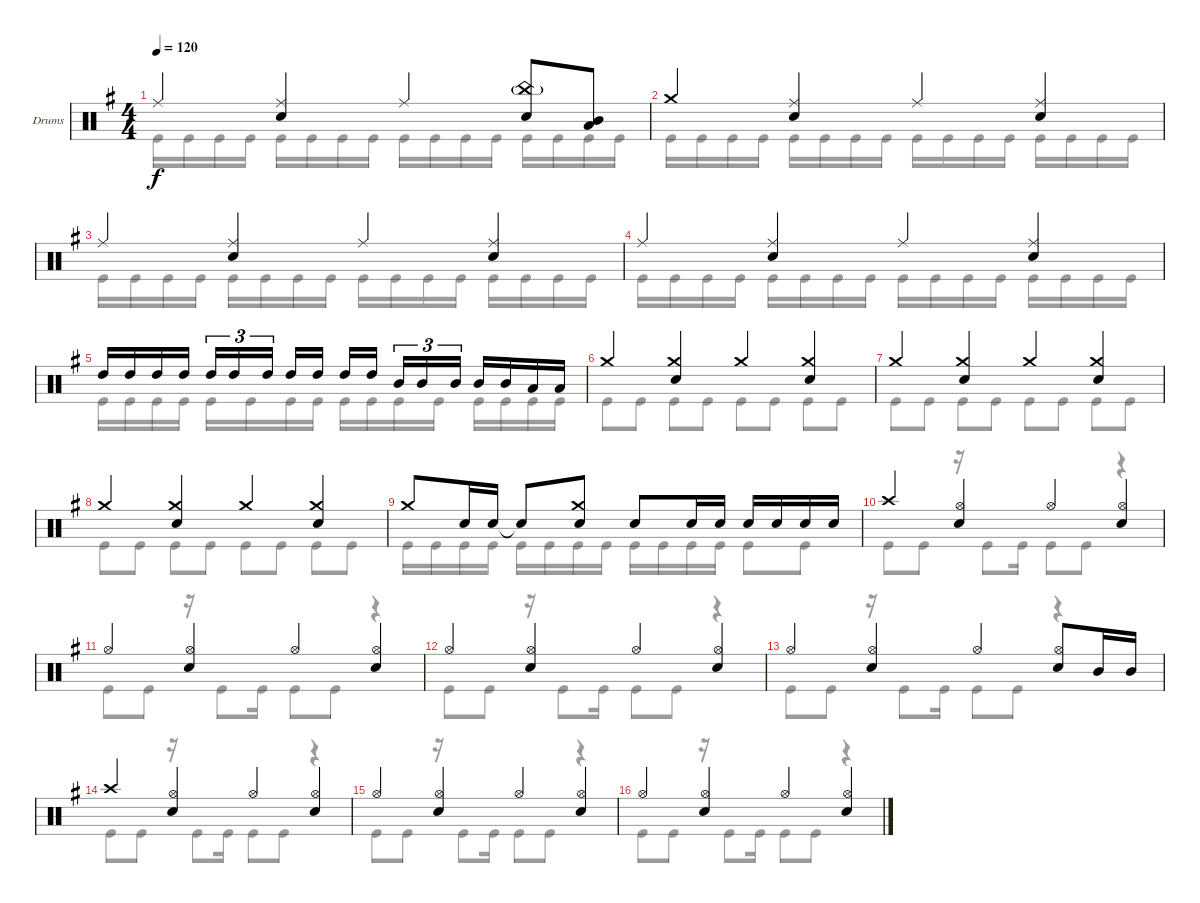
\bracketExtendMode groupsimilarinstruments
\firstSystemTrackNameOrientation horizontal
\otherSystemsTrackNameOrientation horizontal
\track ("Drumkit" "Drums") {mute instrument percussion}
\staff {score}
\articulation defaults
\voice
\ts (4 4)
\tempo 120
\clef neutral
\ks eminor "Ride (middle)".4{dy f}
("Ride (middle)" "Snare (hit) 2").4 "Ride (middle)".4 ("China (hit)"{g} "Snare (hit) 2").8 ("Mid Tom (hit)" "Low Tom (hit)").8 |
"Crash medium (hit)".4 ("Ride (middle)" "Snare (hit) 2").4 "Ride (middle)".4 ("Ride (middle)" "Snare (hit) 2").4 |
"Ride (middle)".4 ("Ride (middle)" "Snare (hit) 2").4 "Ride (middle)".4 ("Ride (middle)" "Snare (hit) 2").4 |
"Ride (middle)".4 ("Ride (middle)" "Snare (hit) 2").4 "Ride (middle)".4 ("Ride (middle)" "Snare (hit) 2").4 |
"High Tom (hit)".16 "High Tom (hit)".16 "High Tom (hit)".16 "High Tom (hit)".16 "High Tom (hit)".16{tu (3 2)} "High Tom (hit)".16{tu (3 2)} "High Tom (hit)".16{tu (3 2)} "High Tom (hit)".16 "High Tom (hit)".16 "High Tom (hit)".16 "High Tom (hit)".16 "Mid Tom (hit)".16{tu (3 2)} "Mid Tom (hit)".16{tu (3 2)} "Mid Tom (hit)".16{tu (3 2)} "Mid Tom (hit)".16 "Mid Tom (hit)".16 "Low Tom (hit)".16 "Low Tom (hit)".16 |
"Crash medium (hit)".4 ("Crash medium (hit)" "Snare (hit) 2").4 "Crash medium (hit)".4 ("Crash medium (hit)" "Snare (hit) 2").4 |
"Crash medium (hit)".4 ("Crash medium (hit)" "Snare (hit) 2").4 "Crash medium (hit)".4 ("Crash medium (hit)" "Snare (hit) 2").4 |
"Crash medium (hit)".4 ("Crash medium (hit)" "Snare (hit) 2").4 "Crash medium (hit)".4 ("Crash medium (hit)" "Snare (hit) 2").4 |
"Crash medium (hit)".8 "Snare (hit) 2".16 "Snare (hit) 2".16 "Snare (hit) 2"{t}.8 ("Crash medium (hit)" "Snare (hit) 2").8 "Snare (hit) 2".8 "Snare (hit) 2".16 "Snare (hit) 2".16 "Snare (hit) 2".16 "Snare (hit) 2".16 "Snare (hit) 2".16 "Snare (hit) 2".16 |
"Crash high (hit)".4 ("Hi-Hat (open)" "Snare (hit) 2").4 "Hi-Hat (open)".4 ("Hi-Hat (open)" "Snare (hit) 2").4 |
"Hi-Hat (open)".4 ("Hi-Hat (open)" "Snare (hit) 2").4 "Hi-Hat (open)".4 ("Hi-Hat (open)" "Snare (hit) 2").4 |
"Hi-Hat (open)".4 ("Hi-Hat (open)" "Snare (hit) 2").4 "Hi-Hat (open)".4 ("Hi-Hat (open)" "Snare (hit) 2").4 |
"Hi-Hat (open)".4 ("Hi-Hat (open)" "Snare (hit) 2").4 "Hi-Hat (open)".4 ("Hi-Hat (open)" "Snare (hit) 2").8 "Mid Tom (hit)".16 "Mid Tom (hit)".16 |
"Crash high (hit)".4 ("Hi-Hat (open)" "Snare (hit) 2").4 "Hi-Hat (open)".4 ("Hi-Hat (open)" "Snare (hit) 2").4 |
"Hi-Hat (open)".4 ("Hi-Hat (open)" "Snare (hit) 2").4 "Hi-Hat (open)".4 ("Hi-Hat (open)" "Snare (hit) 2").4 |
"Hi-Hat (open)".4 ("Hi-Hat (open)" "Snare (hit) 2").4 "Hi-Hat (open)".4 ("Hi-Hat (open)" "Snare (hit) 2").4
\voice
\clef neutral
\ottava regular
\simile none
\ks eminor "Kick (hit)".16{dy f} "Kick (hit)".16 "Kick (hit)".16 "Kick (hit)".16 "Kick (hit)".16 "Kick (hit)".16 "Kick (hit)".16 "Kick (hit)".16 "Kick (hit)".16 "Kick (hit)".16 "Kick (hit)".16 "Kick (hit)".16 "Kick (hit)".16 "Kick (hit)".16 "Kick (hit)".16 "Kick (hit)".16
|
"Kick (hit)".16 "Kick (hit)".16 "Kick (hit)".16 "Kick (hit)".16 "Kick (hit)".16 "Kick (hit)".16 "Kick (hit)".16 "Kick (hit)".16 "Kick (hit)".16 "Kick (hit)".16 "Kick (hit)".16 "Kick (hit)".16 "Kick (hit)".16 "Kick (hit)".16 "Kick (hit)".16 "Kick (hit)".16 |
"Kick (hit)".16 "Kick (hit)".16 "Kick (hit)".16 "Kick (hit)".16 "Kick (hit)".16 "Kick (hit)".16 "Kick (hit)".16 "Kick (hit)".16 "Kick (hit)".16 "Kick (hit)".16 "Kick (hit)".16 "Kick (hit)".16 "Kick (hit)".16 "Kick (hit)".16 "Kick (hit)".16 "Kick (hit)".16 |
"Kick (hit)".16 "Kick (hit)".16 "Kick (hit)".16 "Kick (hit)".16 "Kick (hit)".16 "Kick (hit)".16 "Kick (hit)".16 "Kick (hit)".16 "Kick (hit)".16 "Kick (hit)".16 "Kick (hit)".16 "Kick (hit)".16 "Kick (hit)".16 "Kick (hit)".16 "Kick (hit)".16 "Kick (hit)".16 |
"Kick (hit)".16 "Kick (hit)".16 "Kick (hit)".16 "Kick (hit)".16 "Kick (hit)".16 "Kick (hit)".16 "Kick (hit)".16 "Kick (hit)".16 "Kick (hit)".16 "Kick (hit)".16 "Kick (hit)".16 "Kick (hit)".16 "Kick (hit)".16 "Kick (hit)".16 "Kick (hit)".16 "Kick (hit)".16 |
"Kick (hit)".8 "Kick (hit)".8 "Kick (hit)".8 "Kick (hit)".8 "Kick (hit)".8 "Kick (hit)".8 "Kick (hit)".8 "Kick (hit)".8 |
"Kick (hit)".8 "Kick (hit)".8 "Kick (hit)".8 "Kick (hit)".8 "Kick (hit)".8 "Kick (hit)".8 "Kick (hit)".8 "Kick (hit)".8 |
"Kick (hit)".8 "Kick (hit)".8 "Kick (hit)".8 "Kick (hit)".8 "Kick (hit)".8 "Kick (hit)".8 "Kick (hit)".8 "Kick (hit)".8 |
"Kick (hit)".16 "Kick (hit)".16 "Kick (hit)".16 "Kick (hit)".16 "Kick (hit)".16 "Kick (hit)".16 "Kick (hit)".16 "Kick (hit)".16 "Kick (hit)".16 "Kick (hit)".16 "Kick (hit)".16 "Kick (hit)".16 "Kick (hit)".8 "Kick (hit)".8 |
"Kick (hit)".8 "Kick (hit)".8 r.16 "Kick (hit)".8 "Kick (hit)".16 "Kick (hit)".8 "Kick (hit)".8 r.4 |
"Kick (hit)".8 "Kick (hit)".8 r.16 "Kick (hit)".8 "Kick (hit)".16 "Kick (hit)".8 "Kick (hit)".8 r.4 |
"Kick (hit)".8 "Kick (hit)".8 r.16 "Kick (hit)".8 "Kick (hit)".16 "Kick (hit)".8 "Kick (hit)".8 r.4 |
"Kick (hit)".8 "Kick (hit)".8 r.16 "Kick (hit)".8 "Kick (hit)".16 "Kick (hit)".8 "Kick (hit)".8 r.4 |
"Kick (hit)".8 "Kick (hit)".8 r.16 "Kick (hit)".8 "Kick (hit)".16 "Kick (hit)".8 "Kick (hit)".8 r.4 |
"Kick (hit)".8 "Kick (hit)".8 r.16 "Kick (hit)".8 "Kick (hit)".16 "Kick (hit)".8 "Kick (hit)".8 r.4 |
"Kick (hit)".8 "Kick (hit)".8 r.16 "Kick (hit)".8 "Kick (hit)".16 "Kick (hit)".8 "Kick (hit)".8 r.4
